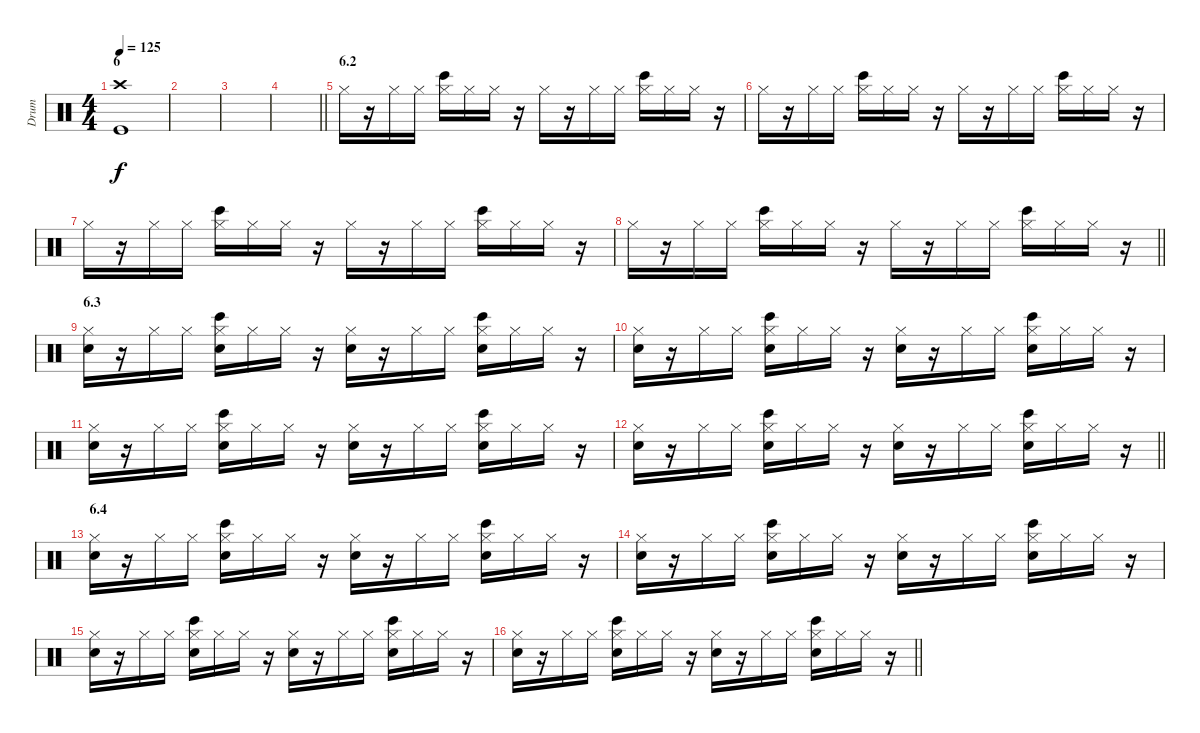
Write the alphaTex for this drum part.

\track ("Drum" "Drum") {instrument percussion}
\staff {score}
\articulation defaults
\ts (4 4)
\section ("" "6")
\tempo 125
\clef neutral
\ks c
("Kick (hit)" "Crash high (hit)").1{dy f} |
|
|
\barLineRight lightlight
|
\section ("" "6.2")
"Hi-Hat (closed)".16 r.16 "Hi-Hat (closed)".16 "Hi-Hat (closed)".16 ("Bongo High (hit)" "Hi-Hat (closed)").16 "Hi-Hat (closed)".16 "Hi-Hat (closed)".16 r.16 "Hi-Hat (closed)".16 r.16 "Hi-Hat (closed)".16 "Hi-Hat (closed)".16 ("Bongo High (hit)" "Hi-Hat (closed)").16 "Hi-Hat (closed)".16 "Hi-Hat (closed)".16 r.16 |
"Hi-Hat (closed)".16 r.16 "Hi-Hat (closed)".16 "Hi-Hat (closed)".16 ("Bongo High (hit)" "Hi-Hat (closed)").16 "Hi-Hat (closed)".16 "Hi-Hat (closed)".16 r.16 "Hi-Hat (closed)".16 r.16 "Hi-Hat (closed)".16 "Hi-Hat (closed)".16 ("Bongo High (hit)" "Hi-Hat (closed)").16 "Hi-Hat (closed)".16 "Hi-Hat (closed)".16 r.16 |
"Hi-Hat (closed)".16 r.16 "Hi-Hat (closed)".16 "Hi-Hat (closed)".16 ("Bongo High (hit)" "Hi-Hat (closed)").16 "Hi-Hat (closed)".16 "Hi-Hat (closed)".16 r.16 "Hi-Hat (closed)".16 r.16 "Hi-Hat (closed)".16 "Hi-Hat (closed)".16 ("Bongo High (hit)" "Hi-Hat (closed)").16 "Hi-Hat (closed)".16 "Hi-Hat (closed)".16 r.16 |
\barLineRight lightlight "Hi-Hat (closed)".16
r.16 "Hi-Hat (closed)".16 "Hi-Hat (closed)".16 ("Bongo High (hit)" "Hi-Hat (closed)").16 "Hi-Hat (closed)".16 "Hi-Hat (closed)".16 r.16 "Hi-Hat (closed)".16 r.16 "Hi-Hat (closed)".16 "Hi-Hat (closed)".16 ("Bongo High (hit)" "Hi-Hat (closed)").16 "Hi-Hat (closed)".16 "Hi-Hat (closed)".16 r.16 |
\section ("" "6.3")
("Hand Clap (hit)" "Hi-Hat (closed)").16 r.16 "Hi-Hat (closed)".16 "Hi-Hat (closed)".16 ("Hand Clap (hit)" "Bongo High (hit)" "Hi-Hat (closed)").16 "Hi-Hat (closed)".16 "Hi-Hat (closed)".16 r.16 ("Hand Clap (hit)" "Hi-Hat (closed)").16 r.16 "Hi-Hat (closed)".16 "Hi-Hat (closed)".16 ("Hand Clap (hit)" "Bongo High (hit)" "Hi-Hat (closed)").16 "Hi-Hat (closed)".16 "Hi-Hat (closed)".16 r.16 |
("Hand Clap (hit)" "Hi-Hat (closed)").16 r.16 "Hi-Hat (closed)".16 "Hi-Hat (closed)".16 ("Hand Clap (hit)" "Bongo High (hit)" "Hi-Hat (closed)").16 "Hi-Hat (closed)".16 "Hi-Hat (closed)".16 r.16 ("Hand Clap (hit)" "Hi-Hat (closed)").16 r.16 "Hi-Hat (closed)".16 "Hi-Hat (closed)".16 ("Hand Clap (hit)" "Bongo High (hit)" "Hi-Hat (closed)").16 "Hi-Hat (closed)".16 "Hi-Hat (closed)".16 r.16 |
("Hand Clap (hit)" "Hi-Hat (closed)").16 r.16 "Hi-Hat (closed)".16 "Hi-Hat (closed)".16 ("Hand Clap (hit)" "Bongo High (hit)" "Hi-Hat (closed)").16 "Hi-Hat (closed)".16 "Hi-Hat (closed)".16 r.16 ("Hand Clap (hit)" "Hi-Hat (closed)").16 r.16 "Hi-Hat (closed)".16 "Hi-Hat (closed)".16 ("Hand Clap (hit)" "Bongo High (hit)" "Hi-Hat (closed)").16 "Hi-Hat (closed)".16 "Hi-Hat (closed)".16 r.16 |
\barLineRight lightlight
("Hand Clap (hit)" "Hi-Hat (closed)").16 r.16 "Hi-Hat (closed)".16 "Hi-Hat (closed)".16 ("Hand Clap (hit)" "Bongo High (hit)" "Hi-Hat (closed)").16 "Hi-Hat (closed)".16 "Hi-Hat (closed)".16 r.16 ("Hand Clap (hit)" "Hi-Hat (closed)").16 r.16 "Hi-Hat (closed)".16 "Hi-Hat (closed)".16 ("Hand Clap (hit)" "Bongo High (hit)" "Hi-Hat (closed)").16 "Hi-Hat (closed)".16 "Hi-Hat (closed)".16 r.16 |
\section ("" "6.4")
("Hand Clap (hit)" "Hi-Hat (closed)").16 r.16 "Hi-Hat (closed)".16 "Hi-Hat (closed)".16 ("Hand Clap (hit)" "Bongo High (hit)" "Hi-Hat (closed)").16 "Hi-Hat (closed)".16 "Hi-Hat (closed)".16 r.16 ("Hand Clap (hit)" "Hi-Hat (closed)").16 r.16 "Hi-Hat (closed)".16 "Hi-Hat (closed)".16 ("Hand Clap (hit)" "Bongo High (hit)" "Hi-Hat (closed)").16 "Hi-Hat (closed)".16 "Hi-Hat (closed)".16 r.16 |
("Hand Clap (hit)" "Hi-Hat (closed)").16 r.16 "Hi-Hat (closed)".16 "Hi-Hat (closed)".16 ("Hand Clap (hit)" "Bongo High (hit)" "Hi-Hat (closed)").16 "Hi-Hat (closed)".16 "Hi-Hat (closed)".16 r.16 ("Hand Clap (hit)" "Hi-Hat (closed)").16 r.16 "Hi-Hat (closed)".16 "Hi-Hat (closed)".16 ("Hand Clap (hit)" "Bongo High (hit)" "Hi-Hat (closed)").16 "Hi-Hat (closed)".16 "Hi-Hat (closed)".16 r.16 |
("Hand Clap (hit)" "Hi-Hat (closed)").16 r.16 "Hi-Hat (closed)".16 "Hi-Hat (closed)".16 ("Hand Clap (hit)" "Bongo High (hit)" "Hi-Hat (closed)").16 "Hi-Hat (closed)".16 "Hi-Hat (closed)".16 r.16 ("Hand Clap (hit)" "Hi-Hat (closed)").16 r.16 "Hi-Hat (closed)".16 "Hi-Hat (closed)".16 ("Hand Clap (hit)" "Bongo High (hit)" "Hi-Hat (closed)").16 "Hi-Hat (closed)".16 "Hi-Hat (closed)".16 r.16 |
\barLineRight lightlight
("Hand Clap (hit)" "Hi-Hat (closed)").16 r.16 "Hi-Hat (closed)".16 "Hi-Hat (closed)".16 ("Hand Clap (hit)" "Bongo High (hit)" "Hi-Hat (closed)").16 "Hi-Hat (closed)".16 "Hi-Hat (closed)".16 r.16 ("Hand Clap (hit)" "Hi-Hat (closed)").16 r.16 "Hi-Hat (closed)".16 "Hi-Hat (closed)".16 ("Hand Clap (hit)" "Bongo High (hit)" "Hi-Hat (closed)").16 "Hi-Hat (closed)".16 "Hi-Hat (closed)".16 r.16
